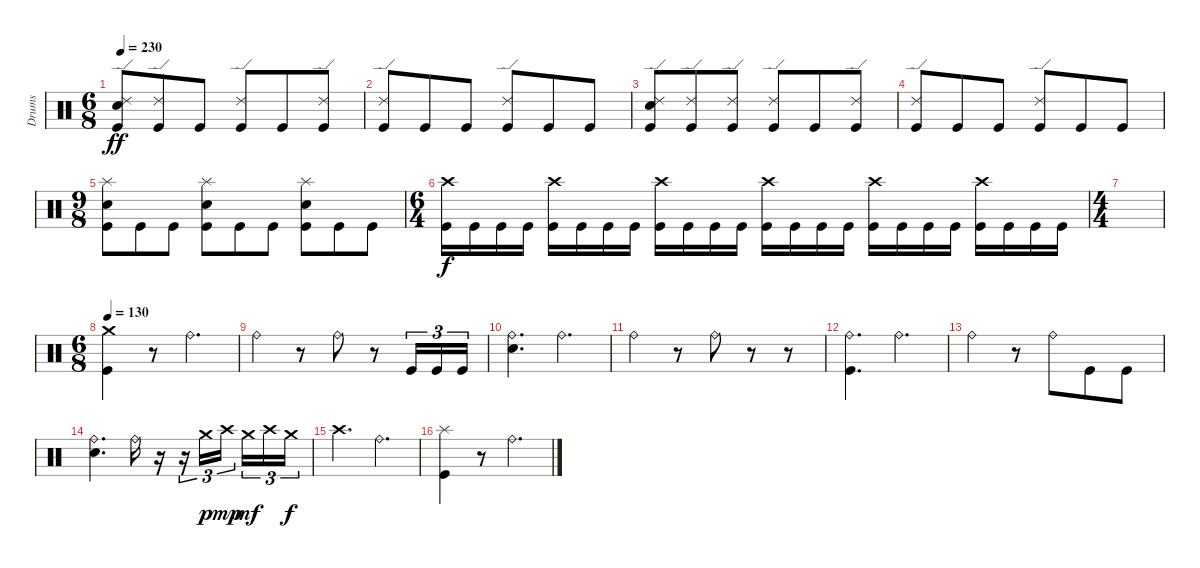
\track ("Drums" "Drums") {instrument percussion}
\staff {score}
\articulation defaults
\ts (6 8)
\tempo 230
\clef neutral
\ks c
("Kick (hit)" "Snare (hit) 2" "Ride (edge) 2").8{dy ff} ("Kick (hit)" "Ride (edge) 2").8 "Kick (hit)".8 ("Kick (hit)" "Ride (edge) 2").8 "Kick (hit)".8 ("Kick (hit)" "Ride (edge) 2").8 |
("Kick (hit)" "Ride (edge) 2").8 "Kick (hit)".8 "Kick (hit)".8 ("Kick (hit)" "Ride (edge) 2").8 "Kick (hit)".8 "Kick (hit)".8 |
("Kick (hit)" "Snare (hit) 2" "Ride (edge) 2").8 ("Kick (hit)" "Ride (edge) 2").8 ("Kick (hit)" "Ride (edge) 2").8 ("Kick (hit)" "Ride (edge) 2").8 "Kick (hit)".8 ("Kick (hit)" "Ride (edge) 2").8 |
("Kick (hit)" "Ride (edge) 2").8 "Kick (hit)".8 "Kick (hit)".8 ("Kick (hit)" "Ride (edge) 2").8 "Kick (hit)".8 "Kick (hit)".8 |
\ts (9 8)
("Kick (hit)" "Snare (hit) 2" "Splash (hit)").8 "Kick (hit)".8 "Kick (hit)".8 ("Kick (hit)" "Snare (hit) 2" "Splash (hit)").8 "Kick (hit)".8 "Kick (hit)".8 ("Kick (hit)" "Snare (hit) 2" "Splash (hit)").8 "Kick (hit)".8 "Kick (hit)".8 |
\ts (6 4)
("Kick (hit)" "Crash high (hit)").16{dy f} "Kick (hit)".16 "Kick (hit)".16 "Kick (hit)".16 ("Kick (hit)" "Crash high (hit)").16 "Kick (hit)".16 "Kick (hit)".16 "Kick (hit)".16 ("Kick (hit)" "Crash high (hit)").16 "Kick (hit)".16 "Kick (hit)".16 "Kick (hit)".16 ("Kick (hit)" "Crash high (hit)").16 "Kick (hit)".16 "Kick (hit)".16 "Kick (hit)".16 ("Kick (hit)" "Crash high (hit)").16 "Kick (hit)".16 "Kick (hit)".16 "Kick (hit)".16 ("Kick (hit)" "Crash high (hit)").16 "Kick (hit)".16 "Kick (hit)".16 "Kick (hit)".16 |
\ts (4 4)
|
\ts (6 8)
\tempo 130
("Kick (hit)" "Crash medium (hit)").4 r.8 "Ride (bell)".4{d} |
"Ride (bell)".4 r.8 "Ride (bell)".8 r.8 "Kick (hit)".16{tu (3 2)} "Kick (hit)".16{tu (3 2)} "Kick (hit)".16{tu (3 2)} |
("Snare (hit) 2" "Ride (bell)").4{d} "Ride (bell)".4{d} |
"Ride (bell)".4 r.8 "Ride (bell)".8 r.8 r.8 |
("Kick (hit)" "Ride (bell)").4{d} "Ride (bell)".4{d} |
"Ride (bell)".4 r.8 "Ride (bell)".8 "Kick (hit)".8 "Kick (hit)".8 |
("Snare (hit) 2" "Ride (bell)").4{d} "Ride (bell)".16 r.16 r.16{tu (3 2)} "Crash medium (hit)".16{tu (3 2) dy p} "Crash high (hit)".16{tu (3 2) dy mp beam splitsecondary} "Crash medium (hit)".16{tu (3 2) dy mf} "Crash high (hit)".16{tu (3 2)} "Crash medium (hit)".16{tu (3 2) dy f} |
"Crash high (hit)".4{d} "Ride (bell)".4{d} |
("Kick (hit)" "Splash (hit)").4 r.8 "Ride (bell)".4{d}
